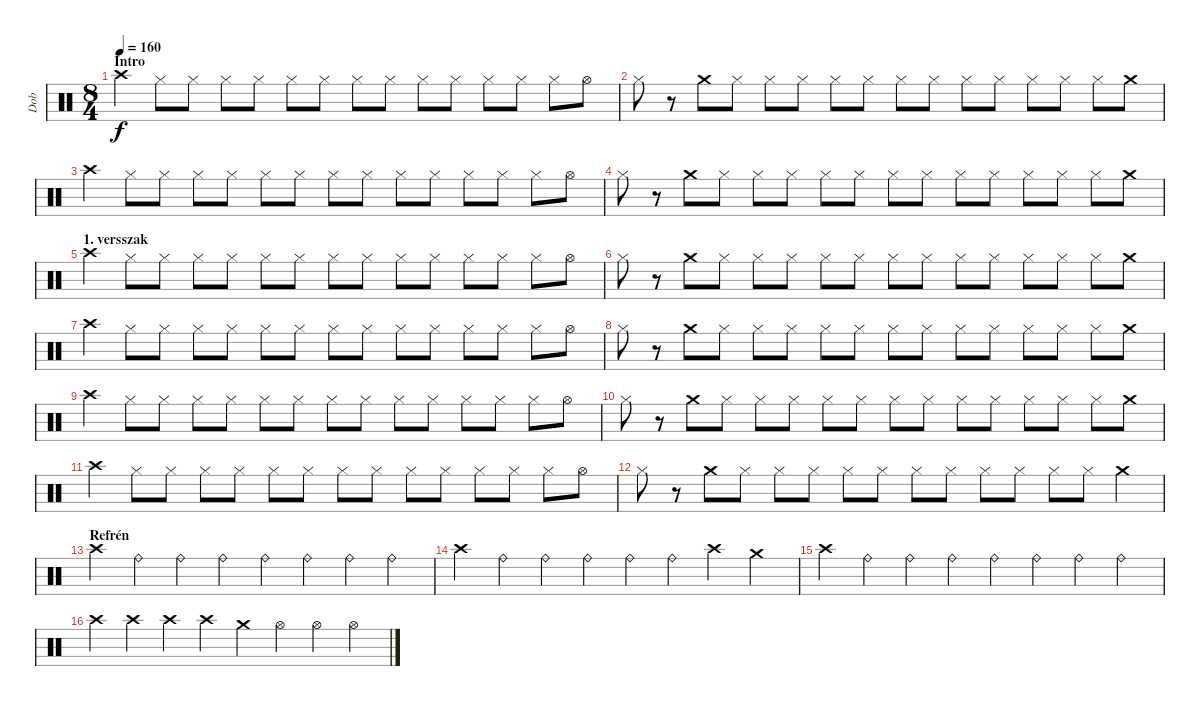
\track ("Dob" "Dob") {instrument percussion}
\staff {score}
\articulation defaults
\ts (8 4)
\section ("" "Intro")
\tempo 160
\clef neutral
\ks c "Crash high (hit)".4{dy f} "Hi-Hat (closed)".8 "Hi-Hat (closed)".8 "Hi-Hat (closed)".8 "Hi-Hat (closed)".8 "Hi-Hat (closed)".8 "Hi-Hat (closed)".8 "Hi-Hat (closed)".8 "Hi-Hat (closed)".8 "Hi-Hat (closed)".8 "Hi-Hat (closed)".8 "Hi-Hat (closed)".8 "Hi-Hat (closed)".8 "Hi-Hat (closed)".8 "Hi-Hat (open)".8
|
"Hi-Hat (closed)".8 r.8 "Crash medium (hit)".8 "Hi-Hat (closed)".8 "Hi-Hat (closed)".8 "Hi-Hat (closed)".8 "Hi-Hat (closed)".8 "Hi-Hat (closed)".8 "Hi-Hat (closed)".8 "Hi-Hat (closed)".8 "Hi-Hat (closed)".8 "Hi-Hat (closed)".8 "Hi-Hat (closed)".8 "Hi-Hat (closed)".8 "Hi-Hat (closed)".8 "Crash medium (hit)".8 |
"Crash high (hit)".4 "Hi-Hat (closed)".8 "Hi-Hat (closed)".8 "Hi-Hat (closed)".8 "Hi-Hat (closed)".8 "Hi-Hat (closed)".8 "Hi-Hat (closed)".8 "Hi-Hat (closed)".8 "Hi-Hat (closed)".8 "Hi-Hat (closed)".8 "Hi-Hat (closed)".8 "Hi-Hat (closed)".8 "Hi-Hat (closed)".8 "Hi-Hat (closed)".8 "Hi-Hat (open)".8 |
"Hi-Hat (closed)".8 r.8 "Crash medium (hit)".8 "Hi-Hat (closed)".8 "Hi-Hat (closed)".8 "Hi-Hat (closed)".8 "Hi-Hat (closed)".8 "Hi-Hat (closed)".8 "Hi-Hat (closed)".8 "Hi-Hat (closed)".8 "Hi-Hat (closed)".8 "Hi-Hat (closed)".8 "Hi-Hat (closed)".8 "Hi-Hat (closed)".8 "Hi-Hat (closed)".8 "Crash medium (hit)".8 |
\section ("" "1. versszak")
"Crash high (hit)".4 "Hi-Hat (closed)".8 "Hi-Hat (closed)".8 "Hi-Hat (closed)".8 "Hi-Hat (closed)".8 "Hi-Hat (closed)".8 "Hi-Hat (closed)".8 "Hi-Hat (closed)".8 "Hi-Hat (closed)".8 "Hi-Hat (closed)".8 "Hi-Hat (closed)".8 "Hi-Hat (closed)".8 "Hi-Hat (closed)".8 "Hi-Hat (closed)".8 "Hi-Hat (open)".8 |
"Hi-Hat (closed)".8 r.8 "Crash medium (hit)".8 "Hi-Hat (closed)".8 "Hi-Hat (closed)".8 "Hi-Hat (closed)".8 "Hi-Hat (closed)".8 "Hi-Hat (closed)".8 "Hi-Hat (closed)".8 "Hi-Hat (closed)".8 "Hi-Hat (closed)".8 "Hi-Hat (closed)".8 "Hi-Hat (closed)".8 "Hi-Hat (closed)".8 "Hi-Hat (closed)".8 "Crash medium (hit)".8 |
"Crash high (hit)".4 "Hi-Hat (closed)".8 "Hi-Hat (closed)".8 "Hi-Hat (closed)".8 "Hi-Hat (closed)".8 "Hi-Hat (closed)".8 "Hi-Hat (closed)".8 "Hi-Hat (closed)".8 "Hi-Hat (closed)".8 "Hi-Hat (closed)".8 "Hi-Hat (closed)".8 "Hi-Hat (closed)".8 "Hi-Hat (closed)".8 "Hi-Hat (closed)".8 "Hi-Hat (open)".8 |
"Hi-Hat (closed)".8 r.8 "Crash medium (hit)".8 "Hi-Hat (closed)".8 "Hi-Hat (closed)".8 "Hi-Hat (closed)".8 "Hi-Hat (closed)".8 "Hi-Hat (closed)".8 "Hi-Hat (closed)".8 "Hi-Hat (closed)".8 "Hi-Hat (closed)".8 "Hi-Hat (closed)".8 "Hi-Hat (closed)".8 "Hi-Hat (closed)".8 "Hi-Hat (closed)".8 "Crash medium (hit)".8 |
"Crash high (hit)".4 "Hi-Hat (closed)".8 "Hi-Hat (closed)".8 "Hi-Hat (closed)".8 "Hi-Hat (closed)".8 "Hi-Hat (closed)".8 "Hi-Hat (closed)".8 "Hi-Hat (closed)".8 "Hi-Hat (closed)".8 "Hi-Hat (closed)".8 "Hi-Hat (closed)".8 "Hi-Hat (closed)".8 "Hi-Hat (closed)".8 "Hi-Hat (closed)".8 "Hi-Hat (open)".8 |
"Hi-Hat (closed)".8 r.8 "Crash medium (hit)".8 "Hi-Hat (closed)".8 "Hi-Hat (closed)".8 "Hi-Hat (closed)".8 "Hi-Hat (closed)".8 "Hi-Hat (closed)".8 "Hi-Hat (closed)".8 "Hi-Hat (closed)".8 "Hi-Hat (closed)".8 "Hi-Hat (closed)".8 "Hi-Hat (closed)".8 "Hi-Hat (closed)".8 "Hi-Hat (closed)".8 "Crash medium (hit)".8 |
"Crash high (hit)".4 "Hi-Hat (closed)".8 "Hi-Hat (closed)".8 "Hi-Hat (closed)".8 "Hi-Hat (closed)".8 "Hi-Hat (closed)".8 "Hi-Hat (closed)".8 "Hi-Hat (closed)".8 "Hi-Hat (closed)".8 "Hi-Hat (closed)".8 "Hi-Hat (closed)".8 "Hi-Hat (closed)".8 "Hi-Hat (closed)".8 "Hi-Hat (closed)".8 "Hi-Hat (open)".8 |
"Hi-Hat (closed)".8 r.8 "Crash medium (hit)".8 "Hi-Hat (closed)".8 "Hi-Hat (closed)".8 "Hi-Hat (closed)".8 "Hi-Hat (closed)".8 "Hi-Hat (closed)".8 "Hi-Hat (closed)".8 "Hi-Hat (closed)".8 "Hi-Hat (closed)".8 "Hi-Hat (closed)".8 "Hi-Hat (closed)".8 "Hi-Hat (closed)".8 "Crash medium (hit)".4 |
\section ("" "Refrén")
"Crash high (hit)".4 "Ride (bell)".4 "Ride (bell)".4 "Ride (bell)".4 "Ride (bell)".4 "Ride (bell)".4 "Ride (bell)".4 "Ride (bell)".4 |
"Crash high (hit)".4 "Ride (bell)".4 "Ride (bell)".4 "Ride (bell)".4 "Ride (bell)".4 "Ride (bell)".4 "Crash high (hit)".4 "Crash medium (hit)".4 |
"Crash high (hit)".4 "Ride (bell)".4 "Ride (bell)".4 "Ride (bell)".4 "Ride (bell)".4 "Ride (bell)".4 "Ride (bell)".4 "Ride (bell)".4 |
"Crash high (hit)".4 "Crash high (hit)".4 "Crash high (hit)".4 "Crash high (hit)".4 "Crash medium (hit)".4 "Hi-Hat (open)".4 "Hi-Hat (open)".4 "Hi-Hat (open)".4
